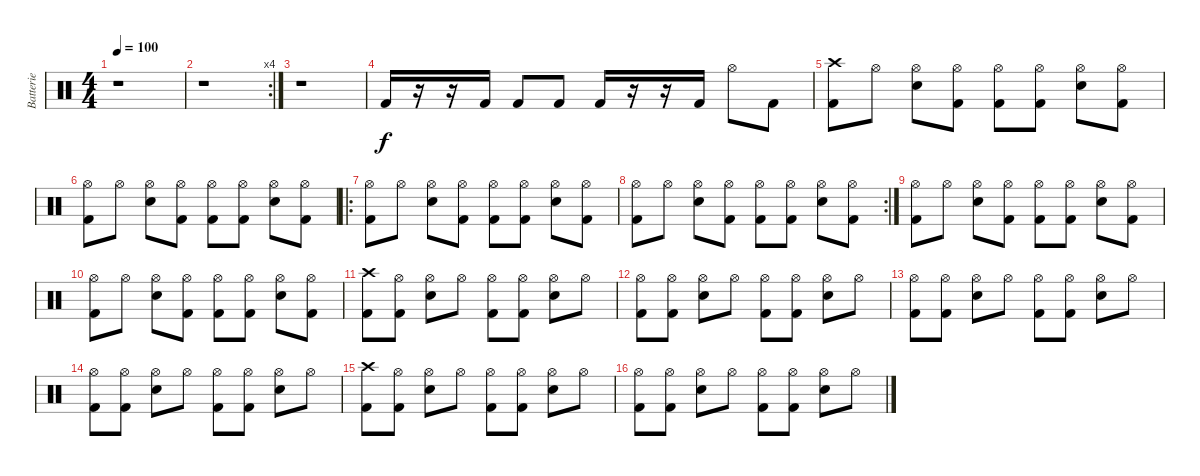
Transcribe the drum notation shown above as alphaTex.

\track ("Batterie" "Batterie") {instrument percussion}
\staff {score}
\articulation defaults
\ts (4 4)
\tempo 100
\clef neutral
\ks c
r.1{dy f} |
\rc 4
r.1 |
r.1 |
"Kick (hit) 2".16 r.16 r.16 "Kick (hit) 2".16 "Kick (hit) 2".8 "Kick (hit) 2".8 "Kick (hit) 2".16 r.16 r.16 "Kick (hit) 2".16 "Hi-Hat (open)".8 "Kick (hit) 2".8 |
("Crash high (hit)" "Kick (hit) 2").8 "Hi-Hat (open)".8 ("Hi-Hat (open)" "Snare (hit) 2").8 ("Hi-Hat (open)" "Kick (hit) 2").8 ("Hi-Hat (open)" "Kick (hit) 2").8 ("Hi-Hat (open)" "Kick (hit) 2").8 ("Hi-Hat (open)" "Snare (hit) 2").8 ("Hi-Hat (open)" "Kick (hit) 2").8 |
("Hi-Hat (open)" "Kick (hit) 2").8 "Hi-Hat (open)".8 ("Hi-Hat (open)" "Snare (hit) 2").8 ("Hi-Hat (open)" "Kick (hit) 2").8 ("Hi-Hat (open)" "Kick (hit) 2").8 ("Hi-Hat (open)" "Kick (hit) 2").8 ("Hi-Hat (open)" "Snare (hit) 2").8 ("Hi-Hat (open)" "Kick (hit) 2").8 |
\ro
("Hi-Hat (open)" "Kick (hit) 2").8 "Hi-Hat (open)".8 ("Hi-Hat (open)" "Snare (hit) 2").8 ("Hi-Hat (open)" "Kick (hit) 2").8 ("Hi-Hat (open)" "Kick (hit) 2").8 ("Hi-Hat (open)" "Kick (hit) 2").8 ("Hi-Hat (open)" "Snare (hit) 2").8 ("Hi-Hat (open)" "Kick (hit) 2").8 |
\rc 2
("Hi-Hat (open)" "Kick (hit) 2").8 "Hi-Hat (open)".8 ("Hi-Hat (open)" "Snare (hit) 2").8 ("Hi-Hat (open)" "Kick (hit) 2").8 ("Hi-Hat (open)" "Kick (hit) 2").8 ("Hi-Hat (open)" "Kick (hit) 2").8 ("Hi-Hat (open)" "Snare (hit) 2").8 ("Hi-Hat (open)" "Kick (hit) 2").8 |
("Hi-Hat (open)" "Kick (hit) 2").8 "Hi-Hat (open)".8 ("Hi-Hat (open)" "Snare (hit) 2").8 ("Hi-Hat (open)" "Kick (hit) 2").8 ("Hi-Hat (open)" "Kick (hit) 2").8 ("Hi-Hat (open)" "Kick (hit) 2").8 ("Hi-Hat (open)" "Snare (hit) 2").8 ("Hi-Hat (open)" "Kick (hit) 2").8 |
("Hi-Hat (open)" "Kick (hit) 2").8 "Hi-Hat (open)".8 ("Hi-Hat (open)" "Snare (hit) 2").8 ("Hi-Hat (open)" "Kick (hit) 2").8 ("Hi-Hat (open)" "Kick (hit) 2").8 ("Hi-Hat (open)" "Kick (hit) 2").8 ("Hi-Hat (open)" "Snare (hit) 2").8 ("Hi-Hat (open)" "Kick (hit) 2").8 |
("Crash high (hit)" "Kick (hit) 2").8 ("Hi-Hat (open)" "Kick (hit) 2").8 ("Hi-Hat (open)" "Snare (hit) 2").8 "Hi-Hat (open)".8 ("Hi-Hat (open)" "Kick (hit) 2").8 ("Hi-Hat (open)" "Kick (hit) 2").8 ("Hi-Hat (open)" "Snare (hit) 2").8 "Hi-Hat (open)".8 |
("Hi-Hat (open)" "Kick (hit) 2").8 ("Hi-Hat (open)" "Kick (hit) 2").8 ("Hi-Hat (open)" "Snare (hit) 2").8 "Hi-Hat (open)".8 ("Hi-Hat (open)" "Kick (hit) 2").8 ("Hi-Hat (open)" "Kick (hit) 2").8 ("Hi-Hat (open)" "Snare (hit) 2").8 "Hi-Hat (open)".8 |
("Hi-Hat (open)" "Kick (hit) 2").8 ("Hi-Hat (open)" "Kick (hit) 2").8 ("Hi-Hat (open)" "Snare (hit) 2").8 "Hi-Hat (open)".8 ("Hi-Hat (open)" "Kick (hit) 2").8 ("Hi-Hat (open)" "Kick (hit) 2").8 ("Hi-Hat (open)" "Snare (hit) 2").8 "Hi-Hat (open)".8 |
("Hi-Hat (open)" "Kick (hit) 2").8 ("Hi-Hat (open)" "Kick (hit) 2").8 ("Hi-Hat (open)" "Snare (hit) 2").8 "Hi-Hat (open)".8 ("Hi-Hat (open)" "Kick (hit) 2").8 ("Hi-Hat (open)" "Kick (hit) 2").8 ("Hi-Hat (open)" "Snare (hit) 2").8 "Hi-Hat (open)".8 |
("Crash high (hit)" "Kick (hit) 2").8 ("Hi-Hat (open)" "Kick (hit) 2").8 ("Hi-Hat (open)" "Snare (hit) 2").8 "Hi-Hat (open)".8 ("Hi-Hat (open)" "Kick (hit) 2").8 ("Hi-Hat (open)" "Kick (hit) 2").8 ("Hi-Hat (open)" "Snare (hit) 2").8 "Hi-Hat (open)".8 |
("Hi-Hat (open)" "Kick (hit) 2").8 ("Hi-Hat (open)" "Kick (hit) 2").8 ("Hi-Hat (open)" "Snare (hit) 2").8 "Hi-Hat (open)".8 ("Hi-Hat (open)" "Kick (hit) 2").8 ("Hi-Hat (open)" "Kick (hit) 2").8 ("Hi-Hat (open)" "Snare (hit) 2").8 "Hi-Hat (open)".8
